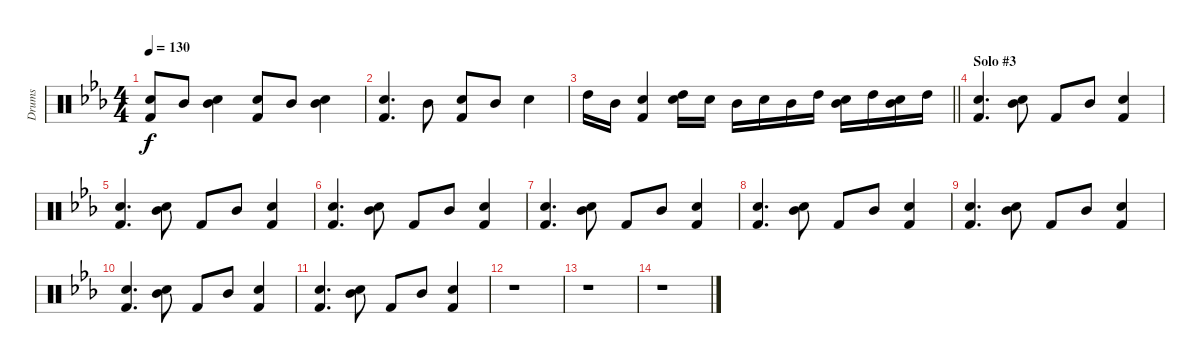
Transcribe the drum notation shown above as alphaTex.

\track ("Drums" "Drums") {instrument percussion}
\staff {score}
\articulation defaults
\ts (4 4)
\tempo 130
\clef neutral
\ks eb
("Electric Snare (hit)" "Kick (hit) 2").8{dy f} "Mid Tom (hit)".8 ("Mid Tom (hit)" "Electric Snare (hit)").4 ("Electric Snare (hit)" "Kick (hit) 2").8 "Mid Tom (hit)".8 ("Mid Tom (hit)" "Electric Snare (hit)").4 |
("Electric Snare (hit)" "Kick (hit) 2").4{d} "Mid Tom (hit)".8 ("Electric Snare (hit)" "Kick (hit) 2").8 "Mid Tom (hit)".8 "Electric Snare (hit)".4 |
\barLineRight lightlight "High Tom (hit)".16 "Mid Tom (hit)".16
("Kick (hit) 2" "Electric Snare (hit)").4 ("High Tom (hit)" "Electric Snare (hit)").16 "Electric Snare (hit)".16 "Mid Tom (hit)".16 "Electric Snare (hit)".16 "Mid Tom (hit)".16 "High Tom (hit)".16 ("Mid Tom (hit)" "Electric Snare (hit)").16 "High Tom (hit)".16 ("Mid Tom (hit)" "Electric Snare (hit)").16 "High Tom (hit)".16 |
\section ("" "Solo #3")
("Electric Snare (hit)" "Kick (hit) 2").4{d} ("Mid Tom (hit)" "Electric Snare (hit)").8 "Kick (hit) 2".8 "Mid Tom (hit)".8 ("Electric Snare (hit)" "Kick (hit) 2").4 |
("Electric Snare (hit)" "Kick (hit) 2").4{d} ("Mid Tom (hit)" "Electric Snare (hit)").8 "Kick (hit) 2".8 "Mid Tom (hit)".8 ("Electric Snare (hit)" "Kick (hit) 2").4 |
("Electric Snare (hit)" "Kick (hit) 2").4{d} ("Mid Tom (hit)" "Electric Snare (hit)").8 "Kick (hit) 2".8 "Mid Tom (hit)".8 ("Electric Snare (hit)" "Kick (hit) 2").4 |
("Electric Snare (hit)" "Kick (hit) 2").4{d} ("Mid Tom (hit)" "Electric Snare (hit)").8 "Kick (hit) 2".8 "Mid Tom (hit)".8 ("Electric Snare (hit)" "Kick (hit) 2").4 |
("Electric Snare (hit)" "Kick (hit) 2").4{d} ("Mid Tom (hit)" "Electric Snare (hit)").8 "Kick (hit) 2".8 "Mid Tom (hit)".8 ("Electric Snare (hit)" "Kick (hit) 2").4 |
("Electric Snare (hit)" "Kick (hit) 2").4{d} ("Mid Tom (hit)" "Electric Snare (hit)").8 "Kick (hit) 2".8 "Mid Tom (hit)".8 ("Electric Snare (hit)" "Kick (hit) 2").4 |
("Electric Snare (hit)" "Kick (hit) 2").4{d} ("Mid Tom (hit)" "Electric Snare (hit)").8 "Kick (hit) 2".8 "Mid Tom (hit)".8 ("Electric Snare (hit)" "Kick (hit) 2").4 |
("Electric Snare (hit)" "Kick (hit) 2").4{d} ("Mid Tom (hit)" "Electric Snare (hit)").8 "Kick (hit) 2".8 "Mid Tom (hit)".8 ("Electric Snare (hit)" "Kick (hit) 2").4 |
r.1 |
r.1 |
r.1
